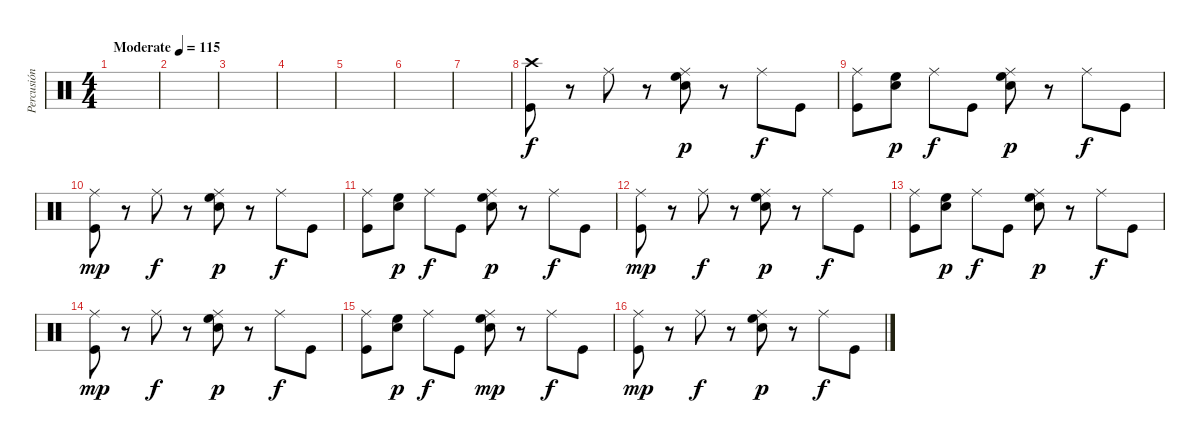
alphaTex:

\track ("Percusión" "Percusión") {instrument percussion}
\staff {score}
\articulation defaults
\ts (4 4)
\tempo (115 "Moderate")
\clef neutral
\ks c
|
|
|
|
|
|
|
("Crash high (hit)" "Kick (hit)").8 r.8 "Ride (middle)".8{dy f} r.8 ("Ride (middle)" "Electric Snare (hit)" "High Floor Tom (hit)").8{dy p} r.8 "Ride (middle)".8{dy f} "Kick (hit)".8 |
("Ride (middle)" "Kick (hit)").8 ("High Floor Tom (hit)" "Electric Snare (hit)").8{dy p} "Ride (middle)".8{dy f} "Kick (hit)".8 ("Ride (middle)" "High Floor Tom (hit)" "Electric Snare (hit)").8{dy p} r.8 "Ride (middle)".8{dy f} "Kick (hit)".8 |
("Ride (middle)" "Kick (hit)").8{dy mp} r.8 "Ride (middle)".8{dy f} r.8 ("Ride (middle)" "Electric Snare (hit)" "High Floor Tom (hit)").8{dy p} r.8 "Ride (middle)".8{dy f} "Kick (hit)".8 |
("Ride (middle)" "Kick (hit)").8 ("High Floor Tom (hit)" "Electric Snare (hit)").8{dy p} "Ride (middle)".8{dy f} "Kick (hit)".8 ("Ride (middle)" "High Floor Tom (hit)" "Electric Snare (hit)").8{dy p} r.8 "Ride (middle)".8{dy f} "Kick (hit)".8 |
("Ride (middle)" "Kick (hit)").8{dy mp} r.8 "Ride (middle)".8{dy f} r.8 ("Ride (middle)" "Electric Snare (hit)" "High Floor Tom (hit)").8{dy p} r.8 "Ride (middle)".8{dy f} "Kick (hit)".8 |
("Ride (middle)" "Kick (hit)").8 ("High Floor Tom (hit)" "Electric Snare (hit)").8{dy p} "Ride (middle)".8{dy f} "Kick (hit)".8 ("Ride (middle)" "High Floor Tom (hit)" "Electric Snare (hit)").8{dy p} r.8 "Ride (middle)".8{dy f} "Kick (hit)".8 |
("Ride (middle)" "Kick (hit)").8{dy mp} r.8 "Ride (middle)".8{dy f} r.8 ("Ride (middle)" "Electric Snare (hit)" "High Floor Tom (hit)").8{dy p} r.8 "Ride (middle)".8{dy f} "Kick (hit)".8 |
("Ride (middle)" "Kick (hit)").8 ("High Floor Tom (hit)" "Electric Snare (hit)").8{dy p} "Ride (middle)".8{dy f} "Kick (hit)".8 ("Ride (middle)" "High Floor Tom (hit)" "Electric Snare (hit)").8{dy mp} r.8 "Ride (middle)".8{dy f} "Kick (hit)".8 |
("Ride (middle)" "Kick (hit)").8{dy mp} r.8 "Ride (middle)".8{dy f} r.8 ("Ride (middle)" "Electric Snare (hit)" "High Floor Tom (hit)").8{dy p} r.8 "Ride (middle)".8{dy f} "Kick (hit)".8
